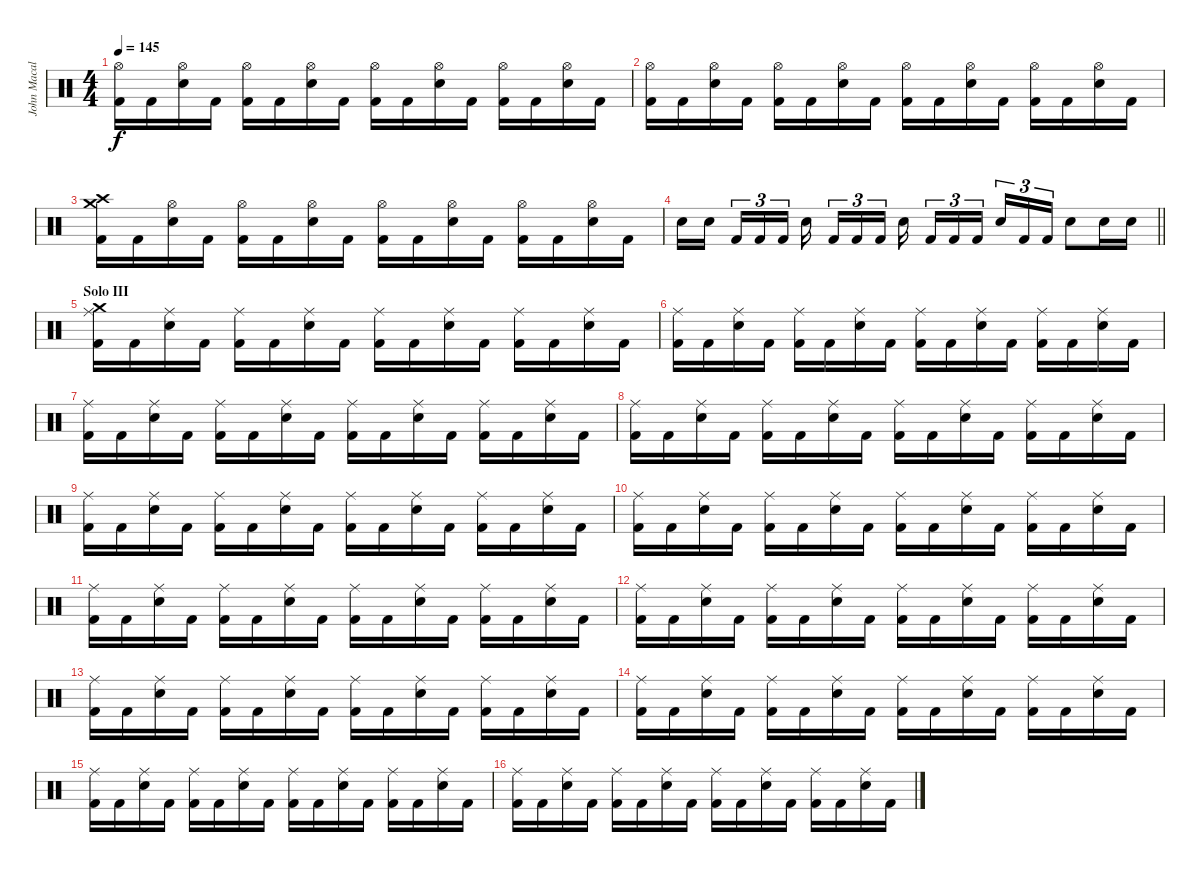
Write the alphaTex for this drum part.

\track ("John Macaluso" "John Macal") {instrument percussion}
\staff {score}
\articulation defaults
\ts (4 4)
\tempo 145
\clef neutral
\ks c
("Hi-Hat (open)" "Kick (hit) 2").16{dy f} "Kick (hit) 2".16 ("Hi-Hat (open)" "Snare (hit) 2").16 "Kick (hit) 2".16 ("Hi-Hat (open)" "Kick (hit) 2").16 "Kick (hit) 2".16 ("Hi-Hat (open)" "Snare (hit) 2").16 "Kick (hit) 2".16 ("Hi-Hat (open)" "Kick (hit) 2").16 "Kick (hit) 2".16 ("Hi-Hat (open)" "Snare (hit) 2").16 "Kick (hit) 2".16 ("Hi-Hat (open)" "Kick (hit) 2").16 "Kick (hit) 2".16 ("Hi-Hat (open)" "Snare (hit) 2").16 "Kick (hit) 2".16 |
("Hi-Hat (open)" "Kick (hit) 2").16 "Kick (hit) 2".16 ("Hi-Hat (open)" "Snare (hit) 2").16 "Kick (hit) 2".16 ("Hi-Hat (open)" "Kick (hit) 2").16 "Kick (hit) 2".16 ("Hi-Hat (open)" "Snare (hit) 2").16 "Kick (hit) 2".16 ("Hi-Hat (open)" "Kick (hit) 2").16 "Kick (hit) 2".16 ("Hi-Hat (open)" "Snare (hit) 2").16 "Kick (hit) 2".16 ("Hi-Hat (open)" "Kick (hit) 2").16 "Kick (hit) 2".16 ("Hi-Hat (open)" "Snare (hit) 2").16 "Kick (hit) 2".16 |
("Crash high (hit)" "Crash medium (hit)" "Kick (hit) 2").16 "Kick (hit) 2".16 ("Hi-Hat (open)" "Snare (hit) 2").16 "Kick (hit) 2".16 ("Hi-Hat (open)" "Kick (hit) 2").16 "Kick (hit) 2".16 ("Hi-Hat (open)" "Snare (hit) 2").16 "Kick (hit) 2".16 ("Hi-Hat (open)" "Kick (hit) 2").16 "Kick (hit) 2".16 ("Hi-Hat (open)" "Snare (hit) 2").16 "Kick (hit) 2".16 ("Hi-Hat (open)" "Kick (hit) 2").16 "Kick (hit) 2".16 ("Hi-Hat (open)" "Snare (hit) 2").16 "Kick (hit) 2".16 |
\barLineRight lightlight "Snare (hit) 2".16 "Snare (hit) 2".16{beam splitsecondary} "Kick (hit) 2".16{tu (3 2)} "Kick (hit) 2".16{tu (3 2)} "Kick (hit) 2".16{tu (3 2)} "Snare (hit) 2".16{beam splitsecondary} "Kick (hit) 2".16{tu (3 2)} "Kick (hit) 2".16{tu (3 2)} "Kick (hit) 2".16{tu (3 2) beam splitsecondary} "Snare (hit) 2".16 "Kick (hit) 2".16{tu (3 2)} "Kick (hit) 2".16{tu (3 2)} "Kick (hit) 2".16{tu (3 2) beam splitsecondary} "Snare (hit) 2".16{tu (3 2)} "Kick (hit) 2".16{tu (3 2)} "Kick (hit) 2".16{tu (3 2)} "Snare (hit) 2".8 "Snare (hit) 2".16 "Snare (hit) 2".16
|
\section ("" "Solo III")
("Crash medium (hit)" "Ride (middle)" "Kick (hit) 2").16 "Kick (hit) 2".16 ("Ride (middle)" "Snare (hit) 2").16 "Kick (hit) 2".16 ("Ride (middle)" "Kick (hit) 2").16 "Kick (hit) 2".16 ("Ride (middle)" "Snare (hit) 2").16 "Kick (hit) 2".16 ("Ride (middle)" "Kick (hit) 2").16 "Kick (hit) 2".16 ("Ride (middle)" "Snare (hit) 2").16 "Kick (hit) 2".16 ("Ride (middle)" "Kick (hit) 2").16 "Kick (hit) 2".16 ("Ride (middle)" "Snare (hit) 2").16 "Kick (hit) 2".16 |
("Ride (middle)" "Kick (hit) 2").16 "Kick (hit) 2".16 ("Ride (middle)" "Snare (hit) 2").16 "Kick (hit) 2".16 ("Ride (middle)" "Kick (hit) 2").16 "Kick (hit) 2".16 ("Ride (middle)" "Snare (hit) 2").16 "Kick (hit) 2".16 ("Ride (middle)" "Kick (hit) 2").16 "Kick (hit) 2".16 ("Ride (middle)" "Snare (hit) 2").16 "Kick (hit) 2".16 ("Ride (middle)" "Kick (hit) 2").16 "Kick (hit) 2".16 ("Ride (middle)" "Snare (hit) 2").16 "Kick (hit) 2".16 |
("Ride (middle)" "Kick (hit) 2").16 "Kick (hit) 2".16 ("Ride (middle)" "Snare (hit) 2").16 "Kick (hit) 2".16 ("Ride (middle)" "Kick (hit) 2").16 "Kick (hit) 2".16 ("Ride (middle)" "Snare (hit) 2").16 "Kick (hit) 2".16 ("Ride (middle)" "Kick (hit) 2").16 "Kick (hit) 2".16 ("Ride (middle)" "Snare (hit) 2").16 "Kick (hit) 2".16 ("Ride (middle)" "Kick (hit) 2").16 "Kick (hit) 2".16 ("Ride (middle)" "Snare (hit) 2").16 "Kick (hit) 2".16 |
("Ride (middle)" "Kick (hit) 2").16 "Kick (hit) 2".16 ("Ride (middle)" "Snare (hit) 2").16 "Kick (hit) 2".16 ("Ride (middle)" "Kick (hit) 2").16 "Kick (hit) 2".16 ("Ride (middle)" "Snare (hit) 2").16 "Kick (hit) 2".16 ("Ride (middle)" "Kick (hit) 2").16 "Kick (hit) 2".16 ("Ride (middle)" "Snare (hit) 2").16 "Kick (hit) 2".16 ("Ride (middle)" "Kick (hit) 2").16 "Kick (hit) 2".16 ("Ride (middle)" "Snare (hit) 2").16 "Kick (hit) 2".16 |
("Ride (middle)" "Kick (hit) 2").16 "Kick (hit) 2".16 ("Ride (middle)" "Snare (hit) 2").16 "Kick (hit) 2".16 ("Ride (middle)" "Kick (hit) 2").16 "Kick (hit) 2".16 ("Ride (middle)" "Snare (hit) 2").16 "Kick (hit) 2".16 ("Ride (middle)" "Kick (hit) 2").16 "Kick (hit) 2".16 ("Ride (middle)" "Snare (hit) 2").16 "Kick (hit) 2".16 ("Ride (middle)" "Kick (hit) 2").16 "Kick (hit) 2".16 ("Ride (middle)" "Snare (hit) 2").16 "Kick (hit) 2".16 |
("Ride (middle)" "Kick (hit) 2").16 "Kick (hit) 2".16 ("Ride (middle)" "Snare (hit) 2").16 "Kick (hit) 2".16 ("Ride (middle)" "Kick (hit) 2").16 "Kick (hit) 2".16 ("Ride (middle)" "Snare (hit) 2").16 "Kick (hit) 2".16 ("Ride (middle)" "Kick (hit) 2").16 "Kick (hit) 2".16 ("Ride (middle)" "Snare (hit) 2").16 "Kick (hit) 2".16 ("Ride (middle)" "Kick (hit) 2").16 "Kick (hit) 2".16 ("Ride (middle)" "Snare (hit) 2").16 "Kick (hit) 2".16 |
("Ride (middle)" "Kick (hit) 2").16 "Kick (hit) 2".16 ("Ride (middle)" "Snare (hit) 2").16 "Kick (hit) 2".16 ("Ride (middle)" "Kick (hit) 2").16 "Kick (hit) 2".16 ("Ride (middle)" "Snare (hit) 2").16 "Kick (hit) 2".16 ("Ride (middle)" "Kick (hit) 2").16 "Kick (hit) 2".16 ("Ride (middle)" "Snare (hit) 2").16 "Kick (hit) 2".16 ("Ride (middle)" "Kick (hit) 2").16 "Kick (hit) 2".16 ("Ride (middle)" "Snare (hit) 2").16 "Kick (hit) 2".16 |
("Ride (middle)" "Kick (hit) 2").16 "Kick (hit) 2".16 ("Ride (middle)" "Snare (hit) 2").16 "Kick (hit) 2".16 ("Ride (middle)" "Kick (hit) 2").16 "Kick (hit) 2".16 ("Ride (middle)" "Snare (hit) 2").16 "Kick (hit) 2".16 ("Ride (middle)" "Kick (hit) 2").16 "Kick (hit) 2".16 ("Ride (middle)" "Snare (hit) 2").16 "Kick (hit) 2".16 ("Ride (middle)" "Kick (hit) 2").16 "Kick (hit) 2".16 ("Ride (middle)" "Snare (hit) 2").16 "Kick (hit) 2".16 |
("Ride (middle)" "Kick (hit) 2").16 "Kick (hit) 2".16 ("Ride (middle)" "Snare (hit) 2").16 "Kick (hit) 2".16 ("Ride (middle)" "Kick (hit) 2").16 "Kick (hit) 2".16 ("Ride (middle)" "Snare (hit) 2").16 "Kick (hit) 2".16 ("Ride (middle)" "Kick (hit) 2").16 "Kick (hit) 2".16 ("Ride (middle)" "Snare (hit) 2").16 "Kick (hit) 2".16 ("Ride (middle)" "Kick (hit) 2").16 "Kick (hit) 2".16 ("Ride (middle)" "Snare (hit) 2").16 "Kick (hit) 2".16 |
("Ride (middle)" "Kick (hit) 2").16 "Kick (hit) 2".16 ("Ride (middle)" "Snare (hit) 2").16 "Kick (hit) 2".16 ("Ride (middle)" "Kick (hit) 2").16 "Kick (hit) 2".16 ("Ride (middle)" "Snare (hit) 2").16 "Kick (hit) 2".16 ("Ride (middle)" "Kick (hit) 2").16 "Kick (hit) 2".16 ("Ride (middle)" "Snare (hit) 2").16 "Kick (hit) 2".16 ("Ride (middle)" "Kick (hit) 2").16 "Kick (hit) 2".16 ("Ride (middle)" "Snare (hit) 2").16 "Kick (hit) 2".16 |
("Ride (middle)" "Kick (hit) 2").16 "Kick (hit) 2".16 ("Ride (middle)" "Snare (hit) 2").16 "Kick (hit) 2".16 ("Ride (middle)" "Kick (hit) 2").16 "Kick (hit) 2".16 ("Ride (middle)" "Snare (hit) 2").16 "Kick (hit) 2".16 ("Ride (middle)" "Kick (hit) 2").16 "Kick (hit) 2".16 ("Ride (middle)" "Snare (hit) 2").16 "Kick (hit) 2".16 ("Ride (middle)" "Kick (hit) 2").16 "Kick (hit) 2".16 ("Ride (middle)" "Snare (hit) 2").16 "Kick (hit) 2".16 |
("Ride (middle)" "Kick (hit) 2").16 "Kick (hit) 2".16 ("Ride (middle)" "Snare (hit) 2").16 "Kick (hit) 2".16 ("Ride (middle)" "Kick (hit) 2").16 "Kick (hit) 2".16 ("Ride (middle)" "Snare (hit) 2").16 "Kick (hit) 2".16 ("Ride (middle)" "Kick (hit) 2").16 "Kick (hit) 2".16 ("Ride (middle)" "Snare (hit) 2").16 "Kick (hit) 2".16 ("Ride (middle)" "Kick (hit) 2").16 "Kick (hit) 2".16 ("Ride (middle)" "Snare (hit) 2").16 "Kick (hit) 2".16
